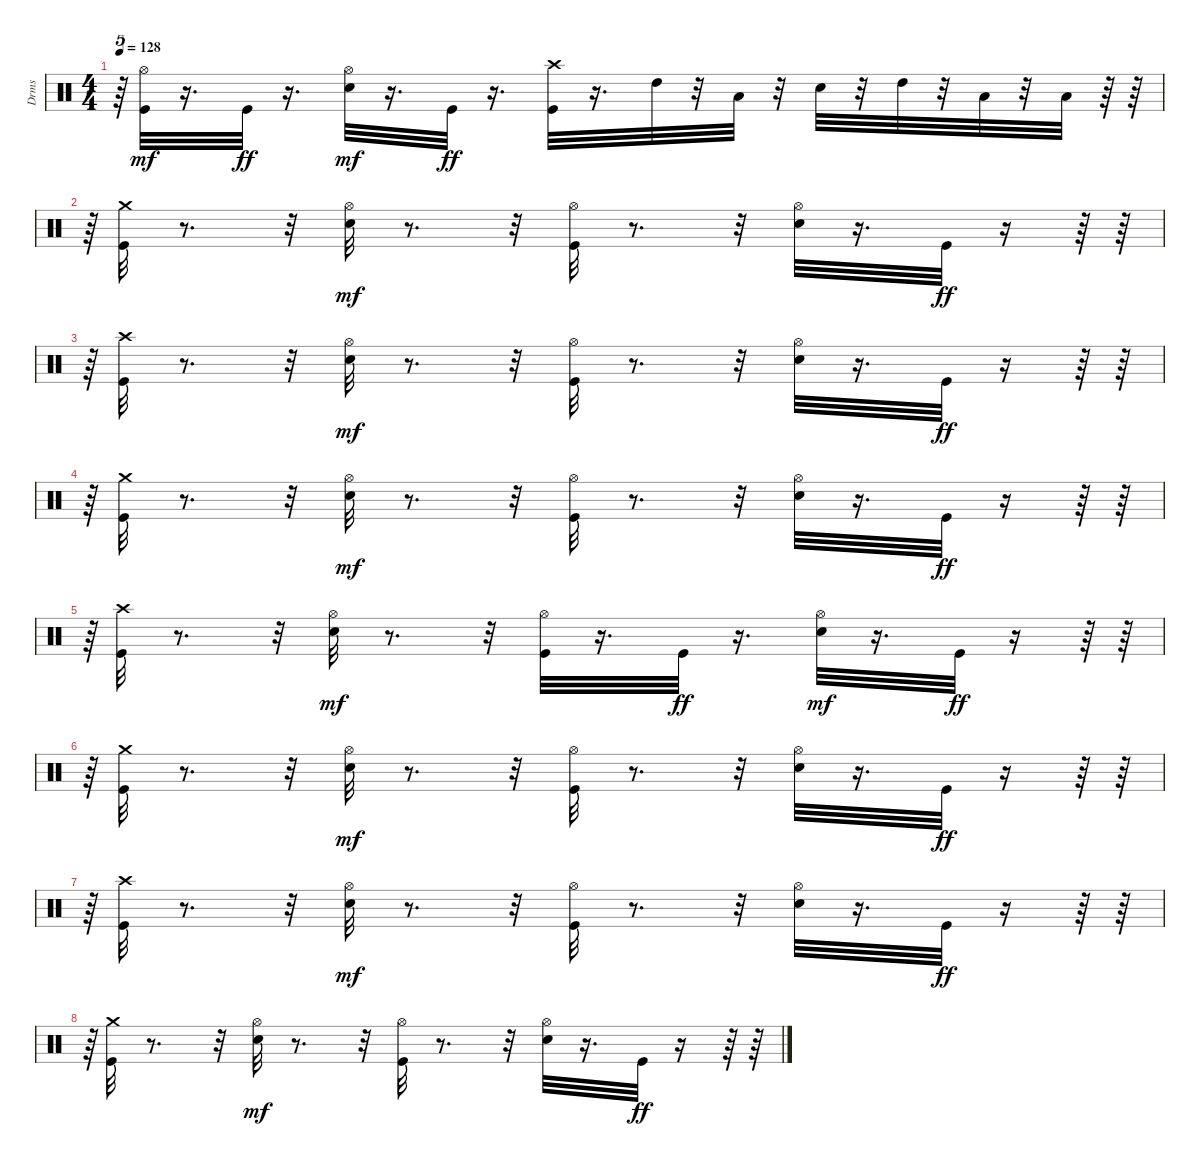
\track ("Drms" "Drms") {instrument percussion}
\staff {score}
\articulation defaults
\ts (4 4)
\tempo 128
\clef neutral
\ks c
r.64{tu (5 4) dy mf} ("Kick (hit)" "Hi-Hat (open)").32 r.16{d} "Kick (hit)".32{dy ff} r.16{d} ("Snare (hit) 2" "Hi-Hat (open)").32{dy mf} r.16{d} "Kick (hit)".32{dy ff} r.16{d} ("Kick (hit)" "Crash high (hit)").32 r.16{d} "High Tom (hit)".32 r.32 "Low Tom (hit)".32 r.32 "Snare (hit) 2".32 r.32 "High Tom (hit)".32 r.32 "Low Tom (hit)".32 r.32 "Low Floor Tom (hit)".32 r.64 r.64 |
r.64{tu (5 4)} ("Kick (hit)" "Crash medium (hit)").32 r.8{d} r.32 ("Snare (hit) 2" "Hi-Hat (open)").32{dy mf} r.8{d} r.32 ("Kick (hit)" "Hi-Hat (open)").32 r.8{d} r.32 ("Snare (hit) 2" "Hi-Hat (open)").32 r.16{d} "Kick (hit)".32{dy ff} r.16 r.64 r.64 |
r.64{tu (5 4)} ("Kick (hit)" "Crash high (hit)").32 r.8{d} r.32 ("Snare (hit) 2" "Hi-Hat (open)").32{dy mf} r.8{d} r.32 ("Kick (hit)" "Hi-Hat (open)").32 r.8{d} r.32 ("Snare (hit) 2" "Hi-Hat (open)").32 r.16{d} "Kick (hit)".32{dy ff} r.16 r.64 r.64 |
r.64{tu (5 4)} ("Kick (hit)" "Crash medium (hit)").32 r.8{d} r.32 ("Snare (hit) 2" "Hi-Hat (open)").32{dy mf} r.8{d} r.32 ("Kick (hit)" "Hi-Hat (open)").32 r.8{d} r.32 ("Snare (hit) 2" "Hi-Hat (open)").32 r.16{d} "Kick (hit)".32{dy ff} r.16 r.64 r.64 |
r.64{tu (5 4)} ("Kick (hit)" "Crash high (hit)").32 r.8{d} r.32 ("Snare (hit) 2" "Hi-Hat (open)").32{dy mf} r.8{d} r.32 ("Kick (hit)" "Hi-Hat (open)").32 r.16{d} "Kick (hit)".32{dy ff} r.16{d} ("Snare (hit) 2" "Hi-Hat (open)").32{dy mf} r.16{d} "Kick (hit)".32{dy ff} r.16 r.64 r.64 |
r.64{tu (5 4)} ("Kick (hit)" "Crash medium (hit)").32 r.8{d} r.32 ("Snare (hit) 2" "Hi-Hat (open)").32{dy mf} r.8{d} r.32 ("Kick (hit)" "Hi-Hat (open)").32 r.8{d} r.32 ("Snare (hit) 2" "Hi-Hat (open)").32 r.16{d} "Kick (hit)".32{dy ff} r.16 r.64 r.64 |
r.64{tu (5 4)} ("Kick (hit)" "Crash high (hit)").32 r.8{d} r.32 ("Snare (hit) 2" "Hi-Hat (open)").32{dy mf} r.8{d} r.32 ("Kick (hit)" "Hi-Hat (open)").32 r.8{d} r.32 ("Snare (hit) 2" "Hi-Hat (open)").32 r.16{d} "Kick (hit)".32{dy ff} r.16 r.64 r.64 |
r.64{tu (5 4)} ("Kick (hit)" "Crash medium (hit)").32 r.8{d} r.32 ("Snare (hit) 2" "Hi-Hat (open)").32{dy mf} r.8{d} r.32 ("Kick (hit)" "Hi-Hat (open)").32 r.8{d} r.32 ("Snare (hit) 2" "Hi-Hat (open)").32 r.16{d} "Kick (hit)".32{dy ff} r.16 r.64 r.64
